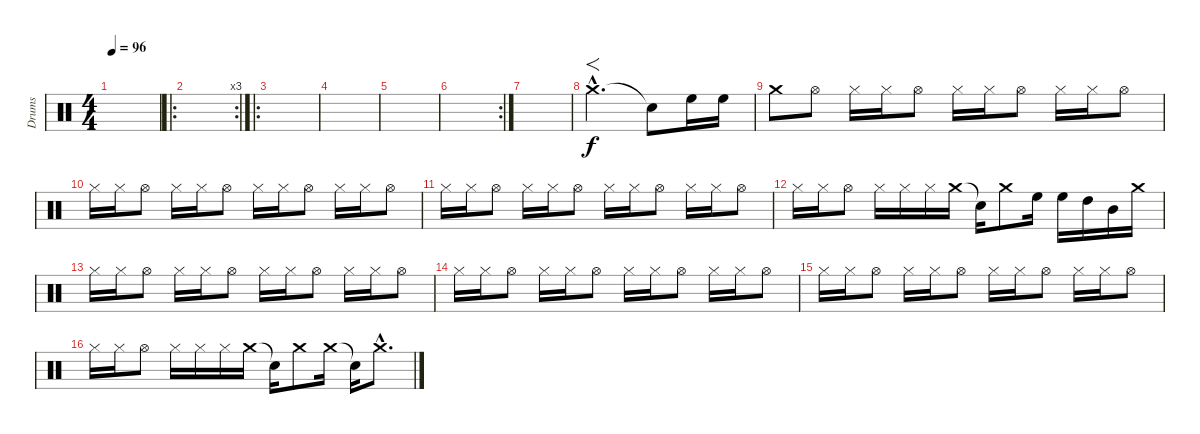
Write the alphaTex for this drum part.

\track ("Drums" "Drums") {instrument percussion}
\staff {score}
\articulation defaults
\ts (4 4)
\tempo 96
\clef neutral
\ks c
|
\ro
\rc 3
|
\ro
|
|
|
\rc 2
|
|
"Crash medium (hit)"{hac}.2{f d} "Snare (hit)"{t}.8 "High Floor Tom (hit)".16 "High Floor Tom (hit)".16 |
"Crash medium (hit)".8 "Hi-Hat (open)".8 "Hi-Hat (closed)".16 "Hi-Hat (closed)".16 "Hi-Hat (open)".8 "Hi-Hat (closed)".16 "Hi-Hat (closed)".16 "Hi-Hat (open)".8 "Hi-Hat (closed)".16 "Hi-Hat (closed)".16 "Hi-Hat (open)".8 |
"Hi-Hat (closed)".16 "Hi-Hat (closed)".16 "Hi-Hat (open)".8 "Hi-Hat (closed)".16 "Hi-Hat (closed)".16 "Hi-Hat (open)".8 "Hi-Hat (closed)".16 "Hi-Hat (closed)".16 "Hi-Hat (open)".8 "Hi-Hat (closed)".16 "Hi-Hat (closed)".16 "Hi-Hat (open)".8 |
"Hi-Hat (closed)".16 "Hi-Hat (closed)".16 "Hi-Hat (open)".8 "Hi-Hat (closed)".16 "Hi-Hat (closed)".16 "Hi-Hat (open)".8 "Hi-Hat (closed)".16 "Hi-Hat (closed)".16 "Hi-Hat (open)".8 "Hi-Hat (closed)".16 "Hi-Hat (closed)".16 "Hi-Hat (open)".8 |
"Hi-Hat (closed)".16 "Hi-Hat (closed)".16 "Hi-Hat (open)".8 "Hi-Hat (closed)".16 "Hi-Hat (closed)".16 "Hi-Hat (closed)".16 "Crash medium (hit)".16 "Snare (hit)"{t}.16 "Crash medium (hit)".8 "High Floor Tom (hit)".16 "High Floor Tom (hit)".16 "High Tom (hit)".16 "Mid Tom (hit)".16 "Crash medium (hit)".16 |
"Hi-Hat (closed)".16 "Hi-Hat (closed)".16 "Hi-Hat (open)".8 "Hi-Hat (closed)".16 "Hi-Hat (closed)".16 "Hi-Hat (open)".8 "Hi-Hat (closed)".16 "Hi-Hat (closed)".16 "Hi-Hat (open)".8 "Hi-Hat (closed)".16 "Hi-Hat (closed)".16 "Hi-Hat (open)".8 |
"Hi-Hat (closed)".16 "Hi-Hat (closed)".16 "Hi-Hat (open)".8 "Hi-Hat (closed)".16 "Hi-Hat (closed)".16 "Hi-Hat (open)".8 "Hi-Hat (closed)".16 "Hi-Hat (closed)".16 "Hi-Hat (open)".8 "Hi-Hat (closed)".16 "Hi-Hat (closed)".16 "Hi-Hat (open)".8 |
"Hi-Hat (closed)".16 "Hi-Hat (closed)".16 "Hi-Hat (open)".8 "Hi-Hat (closed)".16 "Hi-Hat (closed)".16 "Hi-Hat (open)".8 "Hi-Hat (closed)".16 "Hi-Hat (closed)".16 "Hi-Hat (open)".8 "Hi-Hat (closed)".16 "Hi-Hat (closed)".16 "Hi-Hat (open)".8 |
"Hi-Hat (closed)".16 "Hi-Hat (closed)".16 "Hi-Hat (open)".8 "Hi-Hat (closed)".16 "Hi-Hat (closed)".16 "Hi-Hat (closed)".16 "Crash medium (hit)".16 "Snare (hit)"{t}.16 "Crash medium (hit)".8 "Crash medium (hit)".16 "Snare (hit)"{t}.16 "Crash medium (hit)"{hac}.8{d}
